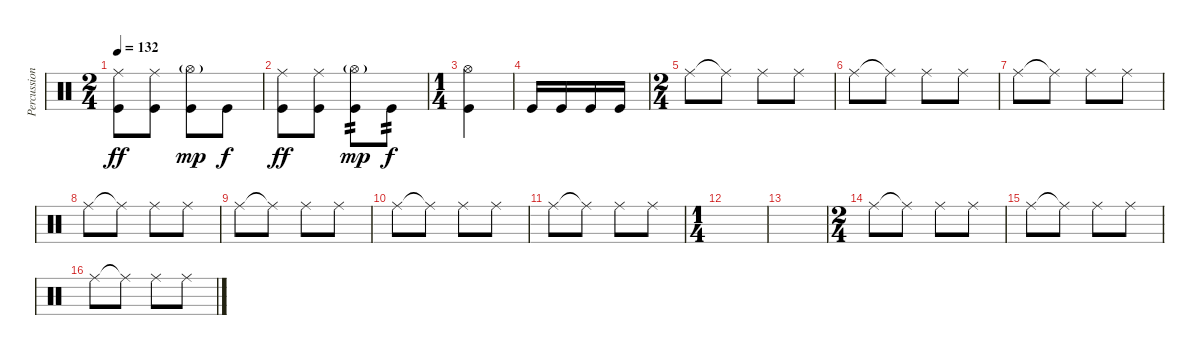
\track ("Percussion" "Percussion") {instrument percussion}
\staff {score}
\articulation defaults
\ts (2 4)
\tempo 132
\clef neutral
\ks c
("Ride (middle)" "Kick (hit)").8{dy ff} ("Ride (middle)" "Kick (hit)").8 ("Hi-Hat (open)"{g} "Kick (hit)").8{dy mp} "Kick (hit)".8{dy f} |
("Ride (middle)" "Kick (hit)").8{dy ff} ("Ride (middle)" "Kick (hit)").8 ("Hi-Hat (open)"{g} "Kick (hit)").8{tp 2 dy mp} "Kick (hit)".8{tp 2 dy f} |
\ts (1 4)
("Hi-Hat (open)" "Kick (hit)").4 |
"Kick (hit)".16 "Kick (hit)".16 "Kick (hit)".16 "Kick (hit)".16 |
\ts (2 4)
"Ride (middle)".8 "Ride (middle)"{t}.8 "Ride (middle)".8 "Ride (middle)".8 |
"Ride (middle)".8 "Ride (middle)"{t}.8 "Ride (middle)".8 "Ride (middle)".8 |
"Ride (middle)".8 "Ride (middle)"{t}.8 "Ride (middle)".8 "Ride (middle)".8 |
"Ride (middle)".8 "Ride (middle)"{t}.8 "Ride (middle)".8 "Ride (middle)".8 |
"Ride (middle)".8 "Ride (middle)"{t}.8 "Ride (middle)".8 "Ride (middle)".8 |
"Ride (middle)".8 "Ride (middle)"{t}.8 "Ride (middle)".8 "Ride (middle)".8 |
"Ride (middle)".8 "Ride (middle)"{t}.8 "Ride (middle)".8 "Ride (middle)".8 |
\ts (1 4)
|
|
\ts (2 4)
"Ride (middle)".8 "Ride (middle)"{t}.8 "Ride (middle)".8 "Ride (middle)".8 |
"Ride (middle)".8 "Ride (middle)"{t}.8 "Ride (middle)".8 "Ride (middle)".8 |
"Ride (middle)".8 "Ride (middle)"{t}.8 "Ride (middle)".8 "Ride (middle)".8
